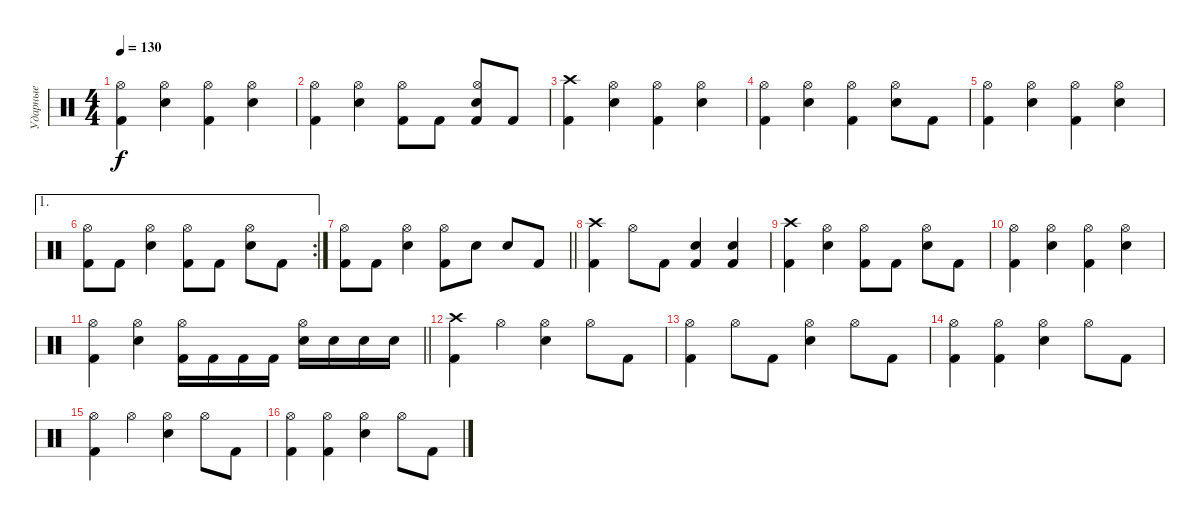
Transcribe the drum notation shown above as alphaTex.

\track ("Ударные" "Ударные") {instrument percussion}
\staff
\articulation defaults
\ts (4 4)
\tempo 130
\clef neutral
\ks c
("Kick (hit) 2" "Hi-Hat (open)").4{dy f} ("Snare (hit) 2" "Hi-Hat (open)").4 ("Kick (hit) 2" "Hi-Hat (open)").4 ("Snare (hit) 2" "Hi-Hat (open)").4 |
("Kick (hit) 2" "Hi-Hat (open)").4 ("Snare (hit) 2" "Hi-Hat (open)").4 ("Kick (hit) 2" "Hi-Hat (open)").8 "Kick (hit) 2".8 ("Kick (hit) 2" "Snare (hit) 2" "Hi-Hat (open)").8 "Kick (hit) 2".8 |
("Kick (hit) 2" "Crash high (hit)").4 ("Snare (hit) 2" "Hi-Hat (open)").4 ("Kick (hit) 2" "Hi-Hat (open)").4 ("Snare (hit) 2" "Hi-Hat (open)").4 |
("Kick (hit) 2" "Hi-Hat (open)").4 ("Snare (hit) 2" "Hi-Hat (open)").4 ("Kick (hit) 2" "Hi-Hat (open)").4 ("Snare (hit) 2" "Hi-Hat (open)").8 "Kick (hit) 2".8 |
("Kick (hit) 2" "Hi-Hat (open)").4 ("Snare (hit) 2" "Hi-Hat (open)").4 ("Kick (hit) 2" "Hi-Hat (open)").4 ("Snare (hit) 2" "Hi-Hat (open)").4 |
\ae 1
\rc 2
("Kick (hit) 2" "Hi-Hat (open)").8 "Kick (hit) 2".8 ("Snare (hit) 2" "Hi-Hat (open)").4 ("Kick (hit) 2" "Hi-Hat (open)").8 "Kick (hit) 2".8 ("Snare (hit) 2" "Hi-Hat (open)").8 "Kick (hit) 2".8 |
\barLineRight lightlight
("Kick (hit) 2" "Hi-Hat (open)").8 "Kick (hit) 2".8 ("Snare (hit) 2" "Hi-Hat (open)").4 ("Kick (hit) 2" "Hi-Hat (open)").8 "Snare (hit) 2".8 "Snare (hit) 2".8 "Kick (hit) 2".8 |
("Kick (hit) 2" "Crash high (hit)").4 "Hi-Hat (open)".8 "Kick (hit) 2".8 ("Kick (hit) 2" "Snare (hit) 2").4 ("Kick (hit) 2" "Snare (hit) 2").4 |
("Kick (hit) 2" "Crash high (hit)").4 ("Snare (hit) 2" "Hi-Hat (open)").4 ("Kick (hit) 2" "Hi-Hat (open)").8 "Kick (hit) 2".8 ("Snare (hit) 2" "Hi-Hat (open)").8 "Kick (hit) 2".8 |
("Kick (hit) 2" "Hi-Hat (open)").4 ("Snare (hit) 2" "Hi-Hat (open)").4 ("Kick (hit) 2" "Hi-Hat (open)").4 ("Snare (hit) 2" "Hi-Hat (open)").4 |
\barLineRight lightlight
("Kick (hit) 2" "Hi-Hat (open)").4 ("Snare (hit) 2" "Hi-Hat (open)").4 ("Kick (hit) 2" "Hi-Hat (open)").16 "Kick (hit) 2".16 "Kick (hit) 2".16 "Kick (hit) 2".16 ("Snare (hit) 2" "Hi-Hat (open)").16 "Electric Snare (hit)".16 "Electric Snare (hit)".16 "Electric Snare (hit)".16 |
("Kick (hit) 2" "Crash high (hit)").4 "Hi-Hat (open)".4 ("Snare (hit) 2" "Hi-Hat (open)").4 "Hi-Hat (open)".8 "Kick (hit) 2".8 |
("Kick (hit) 2" "Hi-Hat (open)").4 "Hi-Hat (open)".8 "Kick (hit) 2".8 ("Snare (hit) 2" "Hi-Hat (open)").4 "Hi-Hat (open)".8 "Kick (hit) 2".8 |
("Kick (hit) 2" "Hi-Hat (open)").4 ("Kick (hit) 2" "Hi-Hat (open)").4 ("Snare (hit) 2" "Hi-Hat (open)").4 "Hi-Hat (open)".8 "Kick (hit) 2".8 |
("Kick (hit) 2" "Hi-Hat (open)").4 "Hi-Hat (open)".4 ("Snare (hit) 2" "Hi-Hat (open)").4 "Hi-Hat (open)".8 "Kick (hit) 2".8 |
("Kick (hit) 2" "Hi-Hat (open)").4 ("Kick (hit) 2" "Hi-Hat (open)").4 ("Snare (hit) 2" "Hi-Hat (open)").4 "Hi-Hat (open)".8 "Kick (hit) 2".8
